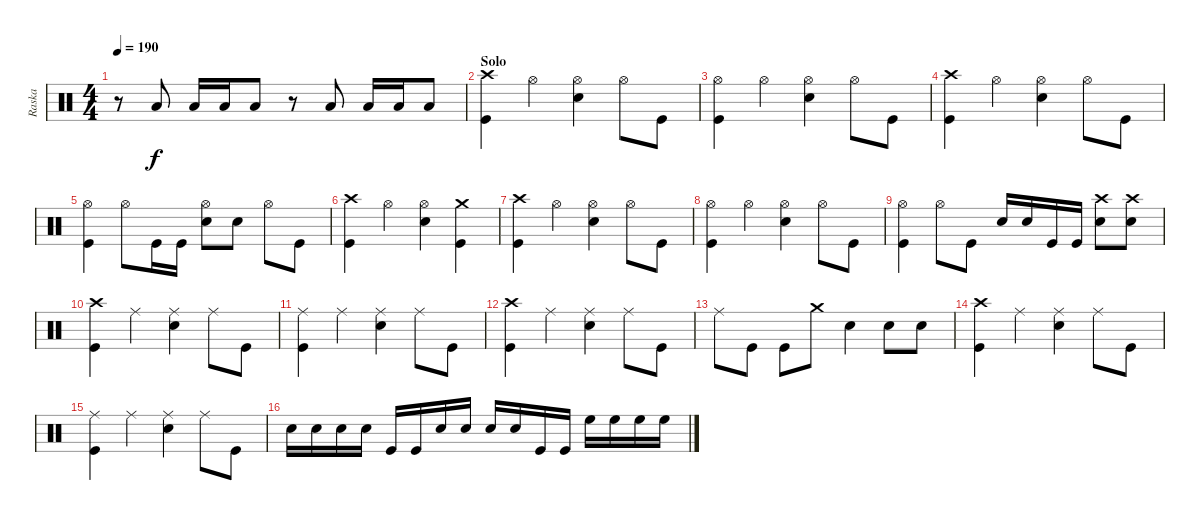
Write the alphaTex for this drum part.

\track ("Raska" "Raska") {instrument percussion}
\staff {score}
\articulation defaults
\ts (4 4)
\tempo 190
\clef neutral
\ks c
r.8{dy f} "Low Tom (hit)".8 "Low Tom (hit)".16 "Low Tom (hit)".16 "Low Tom (hit)".8 r.8 "Low Tom (hit)".8 "Low Tom (hit)".16 "Low Tom (hit)".16 "Low Tom (hit)".8 |
\section ("" "Solo")
("Crash high (hit)" "Kick (hit)").4 "Hi-Hat (open)".4 ("Hi-Hat (open)" "Electric Snare (hit)").4 "Hi-Hat (open)".8 "Kick (hit)".8 |
("Hi-Hat (open)" "Kick (hit)").4 "Hi-Hat (open)".4 ("Hi-Hat (open)" "Electric Snare (hit)").4 "Hi-Hat (open)".8 "Kick (hit)".8 |
("Crash high (hit)" "Kick (hit)").4 "Hi-Hat (open)".4 ("Hi-Hat (open)" "Electric Snare (hit)").4 "Hi-Hat (open)".8 "Kick (hit)".8 |
("Hi-Hat (open)" "Kick (hit)").4 "Hi-Hat (open)".8 "Kick (hit)".16 "Kick (hit)".16 ("Hi-Hat (open)" "Electric Snare (hit)").8 "Electric Snare (hit)".8 "Hi-Hat (open)".8 "Kick (hit)".8 |
("Crash high (hit)" "Kick (hit)").4 "Hi-Hat (open)".4 ("Hi-Hat (open)" "Electric Snare (hit)").4 ("Crash medium (hit)" "Kick (hit)").4 |
("Crash high (hit)" "Kick (hit)").4 "Hi-Hat (open)".4 ("Hi-Hat (open)" "Electric Snare (hit)").4 "Hi-Hat (open)".8 "Kick (hit)".8 |
("Hi-Hat (open)" "Kick (hit)").4 "Hi-Hat (open)".4 ("Hi-Hat (open)" "Electric Snare (hit)").4 "Hi-Hat (open)".8 "Kick (hit)".8 |
("Hi-Hat (open)" "Kick (hit)").4 "Hi-Hat (open)".8 "Kick (hit)".8 "Electric Snare (hit)".16 "Electric Snare (hit)".16 "Kick (hit)".16 "Kick (hit)".16 ("Crash high (hit)" "Electric Snare (hit)").8 ("Crash high (hit)" "Electric Snare (hit)").8 |
("Crash high (hit)" "Kick (hit)").4 "Ride (middle)".4 ("Ride (middle)" "Electric Snare (hit)").4 "Ride (middle)".8 "Kick (hit)".8 |
("Ride (middle)" "Kick (hit)").4 "Ride (middle)".4 ("Ride (middle)" "Electric Snare (hit)").4 "Ride (middle)".8 "Kick (hit)".8 |
("Crash high (hit)" "Kick (hit)").4 "Ride (middle)".4 ("Ride (middle)" "Electric Snare (hit)").4 "Ride (middle)".8 "Kick (hit)".8 |
"Ride (middle)".8 "Kick (hit)".8 "Kick (hit)".8 "Crash medium (hit)".8 "Electric Snare (hit)".4 "Electric Snare (hit)".8 "Electric Snare (hit)".8 |
("Crash high (hit)" "Kick (hit)").4 "Ride (middle)".4 ("Ride (middle)" "Electric Snare (hit)").4 "Ride (middle)".8 "Kick (hit)".8 |
("Ride (middle)" "Kick (hit)").4 "Ride (middle)".4 ("Ride (middle)" "Electric Snare (hit)").4 "Ride (middle)".8 "Kick (hit)".8 |
"Electric Snare (hit)".16 "Electric Snare (hit)".16 "Electric Snare (hit)".16 "Electric Snare (hit)".16 "Kick (hit)".16 "Kick (hit)".16 "Electric Snare (hit)".16 "Electric Snare (hit)".16 "Electric Snare (hit)".16 "Electric Snare (hit)".16 "Kick (hit)".16 "Kick (hit)".16 "High Floor Tom (hit)".16 "High Floor Tom (hit)".16 "High Floor Tom (hit)".16 "High Floor Tom (hit)".16
